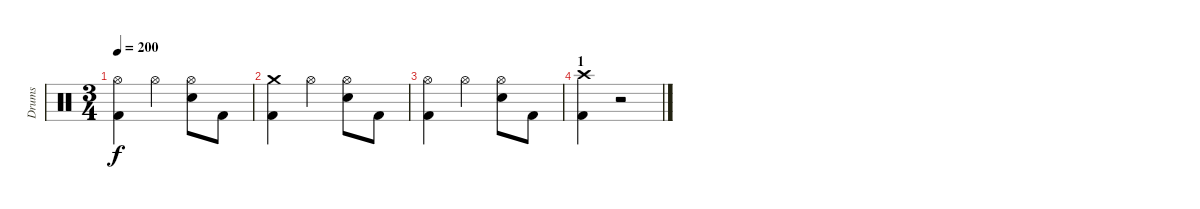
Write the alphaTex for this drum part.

\track ("Drums" "Drums") {instrument percussion}
\staff {score}
\articulation defaults
\ts (3 4)
\tempo 200
\clef neutral
\ks c
("Hi-Hat (open)" "Kick (hit) 2").4{dy f} "Hi-Hat (open)".4 ("Hi-Hat (open)" "Electric Snare (hit)").8 "Kick (hit) 2".8 |
("Crash medium (hit)" "Kick (hit) 2").4 "Hi-Hat (open)".4 ("Hi-Hat (open)" "Electric Snare (hit)").8 "Kick (hit) 2".8 |
("Hi-Hat (open)" "Kick (hit) 2").4 "Hi-Hat (open)".4 ("Hi-Hat (open)" "Electric Snare (hit)").8 "Kick (hit) 2".8 |
\section ("" "1")
("Crash high (hit)" "Kick (hit) 2").4 r.2
